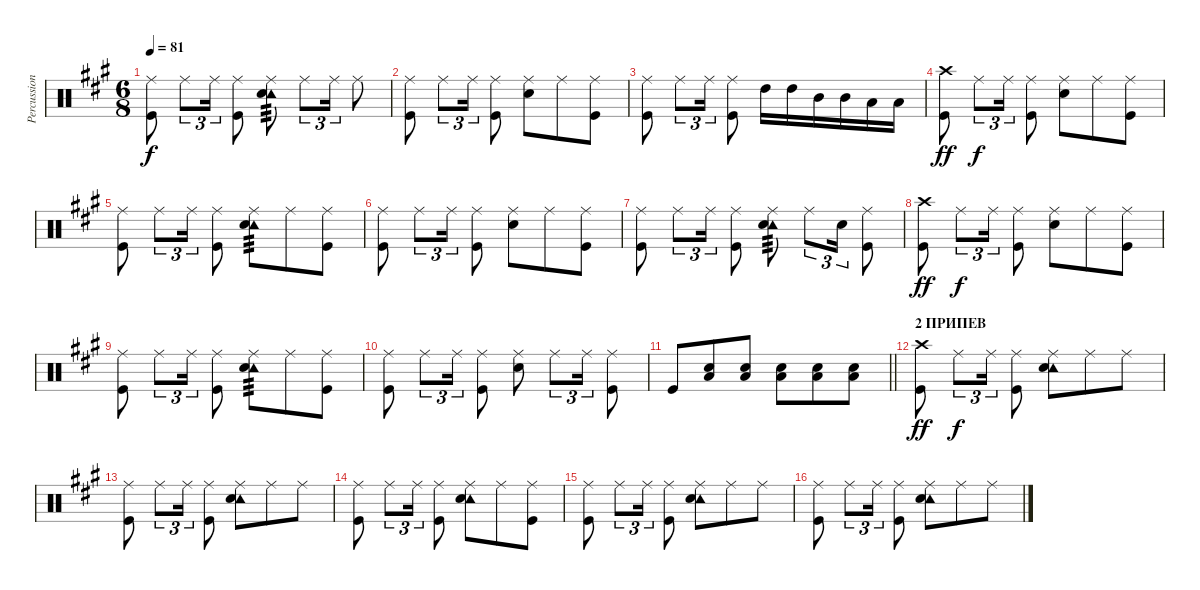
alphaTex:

\track ("Percussion" "Percussion") {instrument percussion}
\staff {score}
\articulation defaults
\ts (6 8)
\tempo 81
\clef neutral
\ks a
("Ride (middle)" "Kick (hit)").8{dy f} "Ride (middle)".8{tu (3 2)} "Ride (middle)".16{tu (3 2)} ("Ride (middle)" "Kick (hit)").8 ("Ride (middle)" "Tambourine (hit)" "Snare (hit) 2").8{tp 3} "Ride (middle)".8{tu (3 2)} "Ride (middle)".16{tu (3 2)} "Ride (middle)".8 |
("Ride (middle)" "Kick (hit)").8 "Ride (middle)".8{tu (3 2)} "Ride (middle)".16{tu (3 2)} ("Ride (middle)" "Kick (hit)").8 ("Ride (middle)" "Snare (hit) 2").8 "Ride (middle)".8 ("Ride (middle)" "Kick (hit)").8 |
("Ride (middle)" "Kick (hit)").8 "Ride (middle)".8{tu (3 2)} "Ride (middle)".16{tu (3 2)} ("Ride (middle)" "Kick (hit)").8 "High Tom (hit)".16 "High Tom (hit)".16 "Mid Tom (hit)".16 "Mid Tom (hit)".16 "Low Tom (hit)".16 "Low Tom (hit)".16 |
("Crash high (hit)" "Kick (hit)").8{dy ff} "Ride (middle)".8{tu (3 2) dy f} "Ride (middle)".16{tu (3 2)} ("Ride (middle)" "Kick (hit)").8 ("Ride (middle)" "Snare (hit) 2").8 "Ride (middle)".8 ("Ride (middle)" "Kick (hit)").8 |
("Ride (middle)" "Kick (hit)").8 "Ride (middle)".8{tu (3 2)} "Ride (middle)".16{tu (3 2)} ("Ride (middle)" "Kick (hit)").8 ("Ride (middle)" "Tambourine (hit)" "Snare (hit) 2").8{tp 3} "Ride (middle)".8 ("Ride (middle)" "Kick (hit)").8 |
("Ride (middle)" "Kick (hit)").8 "Ride (middle)".8{tu (3 2)} "Ride (middle)".16{tu (3 2)} ("Ride (middle)" "Kick (hit)").8 ("Ride (middle)" "Snare (hit) 2").8 "Ride (middle)".8 ("Ride (middle)" "Kick (hit)").8 |
("Ride (middle)" "Kick (hit)").8 "Ride (middle)".8{tu (3 2)} "Ride (middle)".16{tu (3 2)} ("Ride (middle)" "Kick (hit)").8 ("Ride (middle)" "Tambourine (hit)" "Snare (hit) 2").8{tp 3} "Ride (middle)".8{tu (3 2)} "Snare (hit) 2".16{tu (3 2)} ("Ride (middle)" "Kick (hit)").8 |
("Crash high (hit)" "Kick (hit)").8{dy ff} "Ride (middle)".8{tu (3 2) dy f} "Ride (middle)".16{tu (3 2)} ("Ride (middle)" "Kick (hit)").8 ("Ride (middle)" "Snare (hit) 2").8 "Ride (middle)".8 ("Ride (middle)" "Kick (hit)").8 |
("Ride (middle)" "Kick (hit)").8 "Ride (middle)".8{tu (3 2)} "Ride (middle)".16{tu (3 2)} ("Ride (middle)" "Kick (hit)").8 ("Ride (middle)" "Tambourine (hit)" "Snare (hit) 2").8{tp 3} "Ride (middle)".8 ("Ride (middle)" "Kick (hit)").8 |
("Ride (middle)" "Kick (hit)").8 "Ride (middle)".8{tu (3 2)} "Ride (middle)".16{tu (3 2)} ("Ride (middle)" "Kick (hit)").8 ("Ride (middle)" "Snare (hit) 2").8 "Ride (middle)".8{tu (3 2)} "Ride (middle)".16{tu (3 2)} ("Ride (middle)" "Kick (hit)").8 |
\barLineRight lightlight "Kick (hit)".8
("Low Floor Tom (hit)" "Snare (hit) 2").8 ("Low Floor Tom (hit)" "Snare (hit) 2").8 ("Low Floor Tom (hit)" "Snare (hit) 2").8 ("Low Floor Tom (hit)" "Snare (hit) 2").8 ("Low Floor Tom (hit)" "Snare (hit) 2").8 |
\section ("" "2 ПРИПЕВ")
("Crash high (hit)" "Kick (hit)").8{dy ff} "Ride (middle)".8{tu (3 2) dy f} "Ride (middle)".16{tu (3 2)} ("Ride (middle)" "Kick (hit)").8 ("Ride (middle)" "Tambourine (hit)" "Snare (hit) 2").8 "Ride (middle)".8 "Ride (middle)".8 |
("Ride (middle)" "Kick (hit)").8 "Ride (middle)".8{tu (3 2)} "Ride (middle)".16{tu (3 2)} ("Ride (middle)" "Kick (hit)").8 ("Ride (middle)" "Tambourine (hit)" "Snare (hit) 2").8 "Ride (middle)".8 "Ride (middle)".8 |
("Ride (middle)" "Kick (hit)").8 "Ride (middle)".8{tu (3 2)} "Ride (middle)".16{tu (3 2)} ("Ride (middle)" "Kick (hit)").8 ("Ride (middle)" "Tambourine (hit)" "Snare (hit) 2").8 "Ride (middle)".8 ("Ride (middle)" "Kick (hit)").8 |
("Ride (middle)" "Kick (hit)").8 "Ride (middle)".8{tu (3 2)} "Ride (middle)".16{tu (3 2)} ("Ride (middle)" "Kick (hit)").8 ("Ride (middle)" "Tambourine (hit)" "Snare (hit) 2").8 "Ride (middle)".8 "Ride (middle)".8 |
("Ride (middle)" "Kick (hit)").8 "Ride (middle)".8{tu (3 2)} "Ride (middle)".16{tu (3 2)} ("Ride (middle)" "Kick (hit)").8 ("Ride (middle)" "Tambourine (hit)" "Snare (hit) 2").8 "Ride (middle)".8 "Ride (middle)".8
